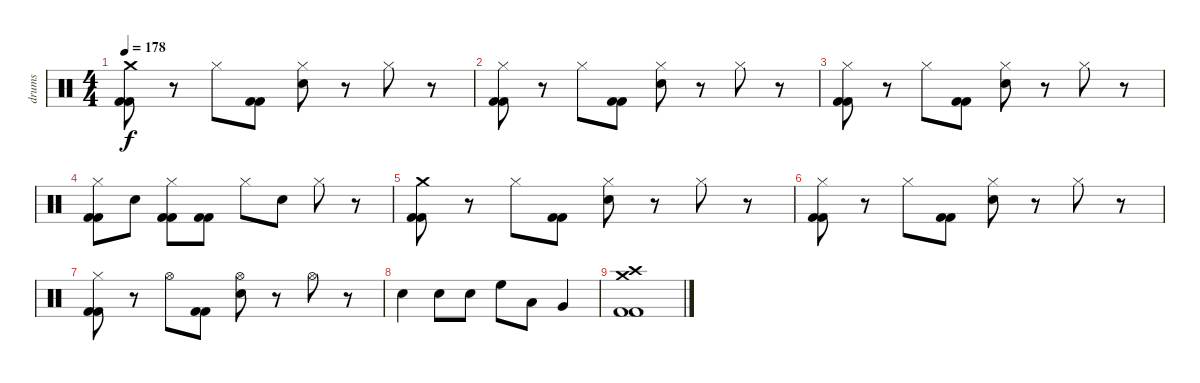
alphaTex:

\track ("drums" "drums") {instrument percussion}
\staff {score}
\articulation defaults
\ts (4 4)
\tempo 178
\clef neutral
\ks c
("Crash medium (hit)" "Kick (hit) 2" "Kick (hit) 2").8{dy f} r.8 "Hi-Hat (closed)".8 ("Kick (hit) 2" "Kick (hit) 2").8 ("Hi-Hat (closed)" "Electric Snare (hit)").8 r.8 "Hi-Hat (closed)".8 r.8 |
("Hi-Hat (closed)" "Kick (hit) 2" "Kick (hit) 2").8 r.8 "Hi-Hat (closed)".8 ("Kick (hit) 2" "Kick (hit) 2").8 ("Hi-Hat (closed)" "Electric Snare (hit)").8 r.8 "Hi-Hat (closed)".8 r.8 |
("Hi-Hat (closed)" "Kick (hit) 2" "Kick (hit) 2").8 r.8 "Hi-Hat (closed)".8 ("Kick (hit) 2" "Kick (hit) 2").8 ("Hi-Hat (closed)" "Electric Snare (hit)").8 r.8 "Hi-Hat (closed)".8 r.8 |
("Hi-Hat (closed)" "Kick (hit) 2" "Kick (hit) 2").8 "Electric Snare (hit)".8 ("Hi-Hat (closed)" "Kick (hit) 2" "Kick (hit) 2").8 ("Kick (hit) 2" "Kick (hit) 2").8 "Hi-Hat (closed)".8 "Electric Snare (hit)".8 "Hi-Hat (closed)".8 r.8 |
("Crash medium (hit)" "Kick (hit) 2" "Kick (hit) 2").8 r.8 "Hi-Hat (closed)".8 ("Kick (hit) 2" "Kick (hit) 2").8 ("Hi-Hat (closed)" "Electric Snare (hit)").8 r.8 "Hi-Hat (closed)".8 r.8 |
("Hi-Hat (closed)" "Kick (hit) 2" "Kick (hit) 2").8 r.8 "Hi-Hat (closed)".8 ("Kick (hit) 2" "Kick (hit) 2").8 ("Hi-Hat (closed)" "Electric Snare (hit)").8 r.8 "Hi-Hat (closed)".8 r.8 |
("Hi-Hat (closed)" "Kick (hit) 2" "Kick (hit) 2").8 r.8 "Hi-Hat (open)".8 ("Kick (hit) 2" "Kick (hit) 2").8 ("Hi-Hat (open)" "Electric Snare (hit)").8 r.8 "Hi-Hat (open)".8 r.8 |
"Electric Snare (hit)".4 "Electric Snare (hit)".8 "Electric Snare (hit)".8 "High Floor Tom (hit)".8 "Low Tom (hit)".8 "Very Low Tom (hit)".4 |
("Crash high (hit)" "Crash medium (hit)" "Kick (hit) 2" "Kick (hit) 2").1
